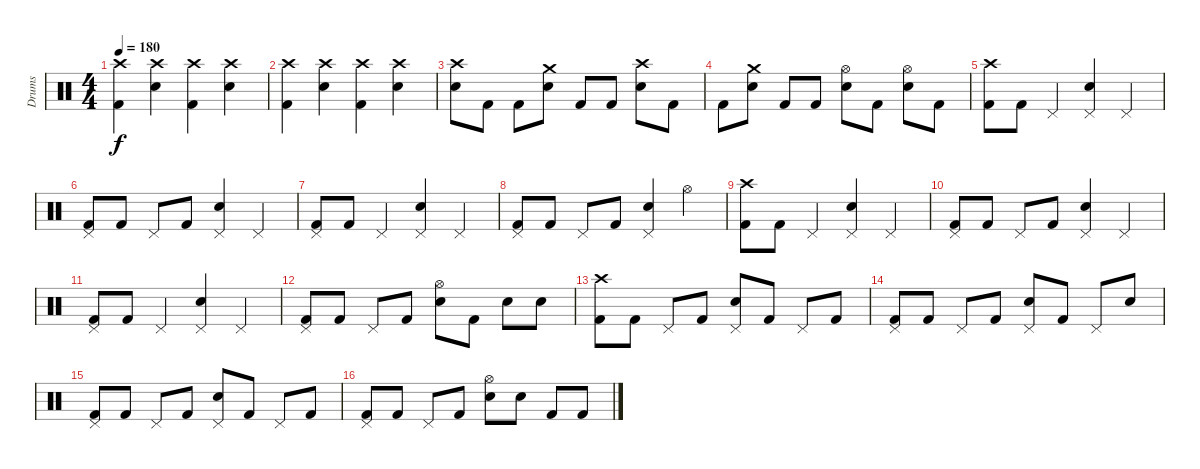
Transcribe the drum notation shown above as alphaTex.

\track ("Drums" "Drums") {instrument percussion}
\staff {score}
\articulation defaults
\ts (4 4)
\tempo 180
\clef neutral
\ks c
("Crash high (hit)" "Kick (hit) 2").4{dy f} ("Crash high (hit)" "Electric Snare (hit)").4 ("Crash high (hit)" "Kick (hit) 2").4 ("Crash high (hit)" "Electric Snare (hit)").4 |
("Crash high (hit)" "Kick (hit) 2").4 ("Crash high (hit)" "Electric Snare (hit)").4 ("Crash high (hit)" "Kick (hit) 2").4 ("Crash high (hit)" "Electric Snare (hit)").4 |
("Crash high (hit)" "Electric Snare (hit)").8 "Kick (hit) 2".8 "Kick (hit) 2".8 ("Crash medium (hit)" "Electric Snare (hit)").8 "Kick (hit) 2".8 "Kick (hit) 2".8 ("Crash high (hit)" "Electric Snare (hit)").8 "Kick (hit) 2".8 |
"Kick (hit) 2".8 ("Crash medium (hit)" "Electric Snare (hit)").8 "Kick (hit) 2".8 "Kick (hit) 2".8 ("Hi-Hat (open)" "Electric Snare (hit)").8 "Kick (hit) 2".8 ("Hi-Hat (open)" "Electric Snare (hit)").8 "Kick (hit) 2".8 |
("Crash high (hit)" "Kick (hit) 2").8 "Kick (hit) 2".8 "Pedal Hi-Hat (hit)".4 ("Pedal Hi-Hat (hit)" "Electric Snare (hit)").4 "Pedal Hi-Hat (hit)".4 |
("Pedal Hi-Hat (hit)" "Kick (hit) 2").8 "Kick (hit) 2".8 "Pedal Hi-Hat (hit)".8 "Kick (hit) 2".8 ("Pedal Hi-Hat (hit)" "Electric Snare (hit)").4 "Pedal Hi-Hat (hit)".4 |
("Pedal Hi-Hat (hit)" "Kick (hit) 2").8 "Kick (hit) 2".8 "Pedal Hi-Hat (hit)".4 ("Pedal Hi-Hat (hit)" "Electric Snare (hit)").4 "Pedal Hi-Hat (hit)".4 |
("Pedal Hi-Hat (hit)" "Kick (hit) 2").8 "Kick (hit) 2".8 "Pedal Hi-Hat (hit)".8 "Kick (hit) 2".8 ("Pedal Hi-Hat (hit)" "Electric Snare (hit)").4 "Hi-Hat (open)".4 |
("Crash high (hit)" "Kick (hit) 2").8 "Kick (hit) 2".8 "Pedal Hi-Hat (hit)".4 ("Pedal Hi-Hat (hit)" "Electric Snare (hit)").4 "Pedal Hi-Hat (hit)".4 |
("Pedal Hi-Hat (hit)" "Kick (hit) 2").8 "Kick (hit) 2".8 "Pedal Hi-Hat (hit)".8 "Kick (hit) 2".8 ("Pedal Hi-Hat (hit)" "Electric Snare (hit)").4 "Pedal Hi-Hat (hit)".4 |
("Pedal Hi-Hat (hit)" "Kick (hit) 2").8 "Kick (hit) 2".8 "Pedal Hi-Hat (hit)".4 ("Pedal Hi-Hat (hit)" "Electric Snare (hit)").4 "Pedal Hi-Hat (hit)".4 |
("Pedal Hi-Hat (hit)" "Kick (hit) 2").8 "Kick (hit) 2".8 "Pedal Hi-Hat (hit)".8 "Kick (hit) 2".8 ("Hi-Hat (open)" "Electric Snare (hit)").8 "Kick (hit) 2".8 "Electric Snare (hit)".8 "Electric Snare (hit)".8 |
("Crash high (hit)" "Kick (hit) 2").8 "Kick (hit) 2".8 "Pedal Hi-Hat (hit)".8 "Kick (hit) 2".8 ("Pedal Hi-Hat (hit)" "Electric Snare (hit)").8 "Kick (hit) 2".8 "Pedal Hi-Hat (hit)".8 "Kick (hit) 2".8 |
("Pedal Hi-Hat (hit)" "Kick (hit) 2").8 "Kick (hit) 2".8 "Pedal Hi-Hat (hit)".8 "Kick (hit) 2".8 ("Pedal Hi-Hat (hit)" "Electric Snare (hit)").8 "Kick (hit) 2".8 "Pedal Hi-Hat (hit)".8 "Electric Snare (hit)".8 |
("Pedal Hi-Hat (hit)" "Kick (hit) 2").8 "Kick (hit) 2".8 "Pedal Hi-Hat (hit)".8 "Kick (hit) 2".8 ("Pedal Hi-Hat (hit)" "Electric Snare (hit)").8 "Kick (hit) 2".8 "Pedal Hi-Hat (hit)".8 "Kick (hit) 2".8 |
("Pedal Hi-Hat (hit)" "Kick (hit) 2").8 "Kick (hit) 2".8 "Pedal Hi-Hat (hit)".8 "Kick (hit) 2".8 ("Hi-Hat (open)" "Electric Snare (hit)").8 "Electric Snare (hit)".8 "Kick (hit) 2".8 "Kick (hit) 2".8
